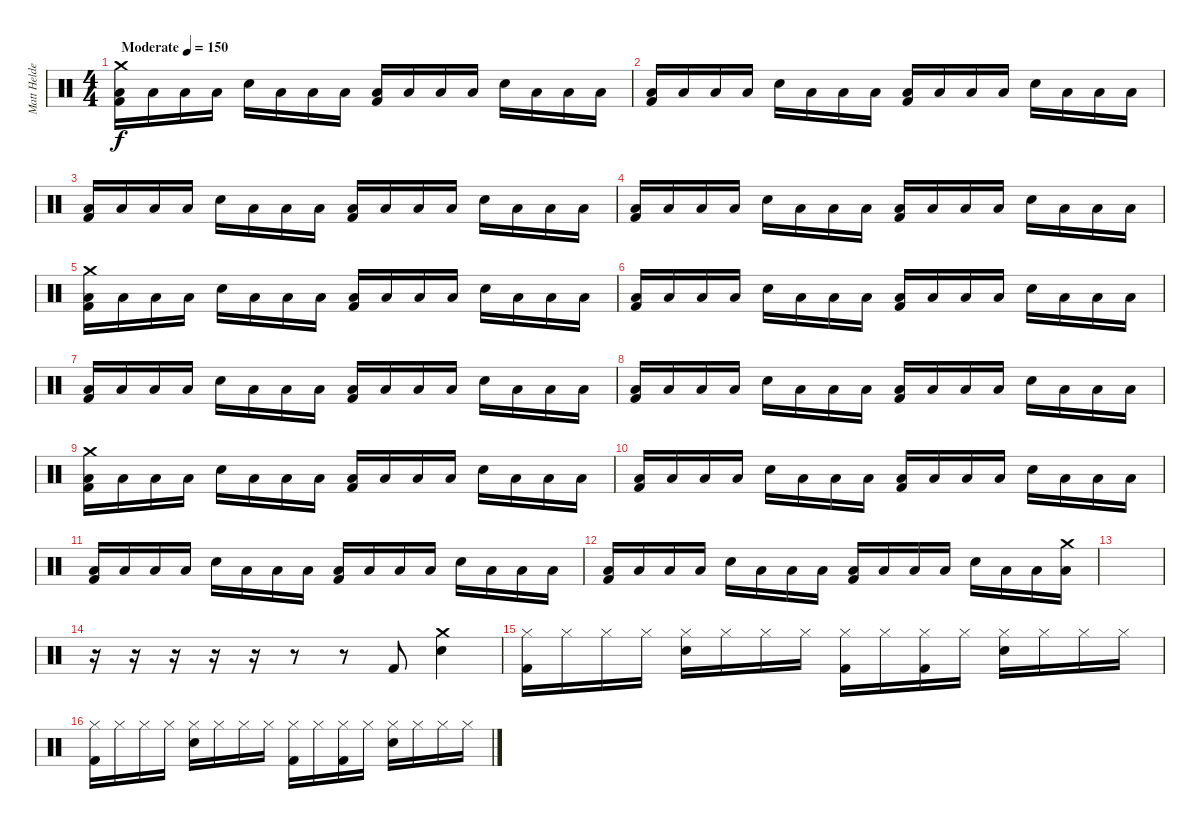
\track ("Matt Helders" "Matt Helde") {instrument percussion}
\staff {score}
\articulation defaults
\ts (4 4)
\tempo (150 "Moderate")
\clef neutral
\ks c
("Low Tom (hit)" "Kick (hit) 2" "Crash medium (hit)").16{dy f} "Low Tom (hit)".16 "Low Tom (hit)".16 "Low Tom (hit)".16 "Snare (hit) 2".16 "Low Tom (hit)".16 "Low Tom (hit)".16 "Low Tom (hit)".16 ("Low Tom (hit)" "Kick (hit) 2").16 "Low Tom (hit)".16 "Low Tom (hit)".16 "Low Tom (hit)".16 "Snare (hit) 2".16 "Low Tom (hit)".16 "Low Tom (hit)".16 "Low Tom (hit)".16 |
("Low Tom (hit)" "Kick (hit) 2").16 "Low Tom (hit)".16 "Low Tom (hit)".16 "Low Tom (hit)".16 "Snare (hit) 2".16 "Low Tom (hit)".16 "Low Tom (hit)".16 "Low Tom (hit)".16 ("Low Tom (hit)" "Kick (hit) 2").16 "Low Tom (hit)".16 "Low Tom (hit)".16 "Low Tom (hit)".16 "Snare (hit) 2".16 "Low Tom (hit)".16 "Low Tom (hit)".16 "Low Tom (hit)".16 |
("Low Tom (hit)" "Kick (hit) 2").16 "Low Tom (hit)".16 "Low Tom (hit)".16 "Low Tom (hit)".16 "Snare (hit) 2".16 "Low Tom (hit)".16 "Low Tom (hit)".16 "Low Tom (hit)".16 ("Low Tom (hit)" "Kick (hit) 2").16 "Low Tom (hit)".16 "Low Tom (hit)".16 "Low Tom (hit)".16 "Snare (hit) 2".16 "Low Tom (hit)".16 "Low Tom (hit)".16 "Low Tom (hit)".16 |
("Low Tom (hit)" "Kick (hit) 2").16 "Low Tom (hit)".16 "Low Tom (hit)".16 "Low Tom (hit)".16 "Snare (hit) 2".16 "Low Tom (hit)".16 "Low Tom (hit)".16 "Low Tom (hit)".16 ("Low Tom (hit)" "Kick (hit) 2").16 "Low Tom (hit)".16 "Low Tom (hit)".16 "Low Tom (hit)".16 "Snare (hit) 2".16 "Low Tom (hit)".16 "Low Tom (hit)".16 "Low Tom (hit)".16 |
("Low Tom (hit)" "Kick (hit) 2" "Crash medium (hit)").16 "Low Tom (hit)".16 "Low Tom (hit)".16 "Low Tom (hit)".16 "Snare (hit) 2".16 "Low Tom (hit)".16 "Low Tom (hit)".16 "Low Tom (hit)".16 ("Low Tom (hit)" "Kick (hit) 2").16 "Low Tom (hit)".16 "Low Tom (hit)".16 "Low Tom (hit)".16 "Snare (hit) 2".16 "Low Tom (hit)".16 "Low Tom (hit)".16 "Low Tom (hit)".16 |
("Low Tom (hit)" "Kick (hit) 2").16 "Low Tom (hit)".16 "Low Tom (hit)".16 "Low Tom (hit)".16 "Snare (hit) 2".16 "Low Tom (hit)".16 "Low Tom (hit)".16 "Low Tom (hit)".16 ("Low Tom (hit)" "Kick (hit) 2").16 "Low Tom (hit)".16 "Low Tom (hit)".16 "Low Tom (hit)".16 "Snare (hit) 2".16 "Low Tom (hit)".16 "Low Tom (hit)".16 "Low Tom (hit)".16 |
("Low Tom (hit)" "Kick (hit) 2").16 "Low Tom (hit)".16 "Low Tom (hit)".16 "Low Tom (hit)".16 "Snare (hit) 2".16 "Low Tom (hit)".16 "Low Tom (hit)".16 "Low Tom (hit)".16 ("Low Tom (hit)" "Kick (hit) 2").16 "Low Tom (hit)".16 "Low Tom (hit)".16 "Low Tom (hit)".16 "Snare (hit) 2".16 "Low Tom (hit)".16 "Low Tom (hit)".16 "Low Tom (hit)".16 |
("Low Tom (hit)" "Kick (hit) 2").16 "Low Tom (hit)".16 "Low Tom (hit)".16 "Low Tom (hit)".16 "Snare (hit) 2".16 "Low Tom (hit)".16 "Low Tom (hit)".16 "Low Tom (hit)".16 ("Low Tom (hit)" "Kick (hit) 2").16 "Low Tom (hit)".16 "Low Tom (hit)".16 "Low Tom (hit)".16 "Snare (hit) 2".16 "Low Tom (hit)".16 "Low Tom (hit)".16 "Low Tom (hit)".16 |
("Low Tom (hit)" "Kick (hit) 2" "Crash medium (hit)").16 "Low Tom (hit)".16 "Low Tom (hit)".16 "Low Tom (hit)".16 "Snare (hit) 2".16 "Low Tom (hit)".16 "Low Tom (hit)".16 "Low Tom (hit)".16 ("Low Tom (hit)" "Kick (hit) 2").16 "Low Tom (hit)".16 "Low Tom (hit)".16 "Low Tom (hit)".16 "Snare (hit) 2".16 "Low Tom (hit)".16 "Low Tom (hit)".16 "Low Tom (hit)".16 |
("Low Tom (hit)" "Kick (hit) 2").16 "Low Tom (hit)".16 "Low Tom (hit)".16 "Low Tom (hit)".16 "Snare (hit) 2".16 "Low Tom (hit)".16 "Low Tom (hit)".16 "Low Tom (hit)".16 ("Low Tom (hit)" "Kick (hit) 2").16 "Low Tom (hit)".16 "Low Tom (hit)".16 "Low Tom (hit)".16 "Snare (hit) 2".16 "Low Tom (hit)".16 "Low Tom (hit)".16 "Low Tom (hit)".16 |
("Low Tom (hit)" "Kick (hit) 2").16 "Low Tom (hit)".16 "Low Tom (hit)".16 "Low Tom (hit)".16 "Snare (hit) 2".16 "Low Tom (hit)".16 "Low Tom (hit)".16 "Low Tom (hit)".16 ("Low Tom (hit)" "Kick (hit) 2").16 "Low Tom (hit)".16 "Low Tom (hit)".16 "Low Tom (hit)".16 "Snare (hit) 2".16 "Low Tom (hit)".16 "Low Tom (hit)".16 "Low Tom (hit)".16 |
("Low Tom (hit)" "Kick (hit) 2").16 "Low Tom (hit)".16 "Low Tom (hit)".16 "Low Tom (hit)".16 "Snare (hit) 2".16 "Low Tom (hit)".16 "Low Tom (hit)".16 "Low Tom (hit)".16 ("Low Tom (hit)" "Kick (hit) 2").16 "Low Tom (hit)".16 "Low Tom (hit)".16 "Low Tom (hit)".16 "Snare (hit) 2".16 "Low Tom (hit)".16 "Low Tom (hit)".16 ("Low Tom (hit)" "Crash medium (hit)").16 |
|
r.16 r.16 r.16 r.16 r.16 r.8 r.8 "Kick (hit) 2".8 ("Snare (hit) 2" "Crash medium (hit)").4 |
("Hi-Hat (closed)" "Kick (hit) 2").16 "Hi-Hat (closed)".16 "Hi-Hat (closed)".16 "Hi-Hat (closed)".16 ("Hi-Hat (closed)" "Snare (hit) 2").16 "Hi-Hat (closed)".16 "Hi-Hat (closed)".16 "Hi-Hat (closed)".16 ("Hi-Hat (closed)" "Kick (hit) 2").16 "Hi-Hat (closed)".16 ("Hi-Hat (closed)" "Kick (hit) 2").16 "Hi-Hat (closed)".16 ("Hi-Hat (closed)" "Snare (hit) 2").16 "Hi-Hat (closed)".16 "Hi-Hat (closed)".16 "Hi-Hat (closed)".16 |
("Hi-Hat (closed)" "Kick (hit) 2").16 "Hi-Hat (closed)".16 "Hi-Hat (closed)".16 "Hi-Hat (closed)".16 ("Hi-Hat (closed)" "Snare (hit) 2").16 "Hi-Hat (closed)".16 "Hi-Hat (closed)".16 "Hi-Hat (closed)".16 ("Hi-Hat (closed)" "Kick (hit) 2").16 "Hi-Hat (closed)".16 ("Hi-Hat (closed)" "Kick (hit) 2").16 "Hi-Hat (closed)".16 ("Hi-Hat (closed)" "Snare (hit) 2").16 "Hi-Hat (closed)".16 "Hi-Hat (closed)".16 "Hi-Hat (closed)".16
